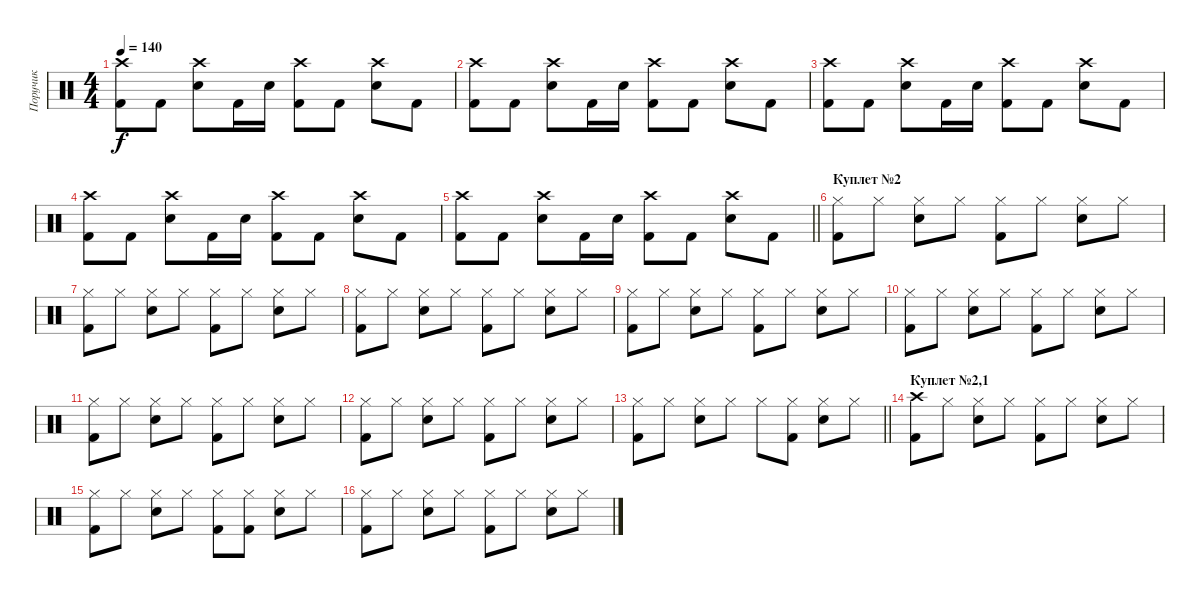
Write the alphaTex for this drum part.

\track ("Поручик" "Поручик") {instrument percussion}
\staff {score}
\articulation defaults
\ts (4 4)
\tempo 140
\clef neutral
\ks c
("Crash high (hit)" "Kick (hit) 2").8{dy f} "Kick (hit) 2".8 ("Crash high (hit)" "Electric Snare (hit)").8 "Kick (hit) 2".16 "Electric Snare (hit)".16 ("Crash high (hit)" "Kick (hit) 2").8 "Kick (hit) 2".8 ("Crash high (hit)" "Electric Snare (hit)").8 "Kick (hit) 2".8 |
("Crash high (hit)" "Kick (hit) 2").8 "Kick (hit) 2".8 ("Crash high (hit)" "Electric Snare (hit)").8 "Kick (hit) 2".16 "Electric Snare (hit)".16 ("Crash high (hit)" "Kick (hit) 2").8 "Kick (hit) 2".8 ("Crash high (hit)" "Electric Snare (hit)").8 "Kick (hit) 2".8 |
("Crash high (hit)" "Kick (hit) 2").8 "Kick (hit) 2".8 ("Crash high (hit)" "Electric Snare (hit)").8 "Kick (hit) 2".16 "Electric Snare (hit)".16 ("Crash high (hit)" "Kick (hit) 2").8 "Kick (hit) 2".8 ("Crash high (hit)" "Electric Snare (hit)").8 "Kick (hit) 2".8 |
("Crash high (hit)" "Kick (hit) 2").8 "Kick (hit) 2".8 ("Crash high (hit)" "Electric Snare (hit)").8 "Kick (hit) 2".16 "Electric Snare (hit)".16 ("Crash high (hit)" "Kick (hit) 2").8 "Kick (hit) 2".8 ("Crash high (hit)" "Electric Snare (hit)").8 "Kick (hit) 2".8 |
\barLineRight lightlight
("Crash high (hit)" "Kick (hit) 2").8 "Kick (hit) 2".8 ("Crash high (hit)" "Electric Snare (hit)").8 "Kick (hit) 2".16 "Electric Snare (hit)".16 ("Crash high (hit)" "Kick (hit) 2").8 "Kick (hit) 2".8 ("Crash high (hit)" "Electric Snare (hit)").8 "Kick (hit) 2".8 |
\section ("" "Куплет №2")
("Hi-Hat (closed)" "Kick (hit) 2").8 "Hi-Hat (closed)".8 ("Hi-Hat (closed)" "Electric Snare (hit)").8 "Hi-Hat (closed)".8 ("Hi-Hat (closed)" "Kick (hit) 2").8 "Hi-Hat (closed)".8 ("Hi-Hat (closed)" "Electric Snare (hit)").8 "Hi-Hat (closed)".8 |
("Hi-Hat (closed)" "Kick (hit) 2").8 "Hi-Hat (closed)".8 ("Hi-Hat (closed)" "Electric Snare (hit)").8 "Hi-Hat (closed)".8 ("Hi-Hat (closed)" "Kick (hit) 2").8 "Hi-Hat (closed)".8 ("Hi-Hat (closed)" "Electric Snare (hit)").8 "Hi-Hat (closed)".8 |
("Hi-Hat (closed)" "Kick (hit) 2").8 "Hi-Hat (closed)".8 ("Hi-Hat (closed)" "Electric Snare (hit)").8 "Hi-Hat (closed)".8 ("Hi-Hat (closed)" "Kick (hit) 2").8 "Hi-Hat (closed)".8 ("Hi-Hat (closed)" "Electric Snare (hit)").8 "Hi-Hat (closed)".8 |
("Hi-Hat (closed)" "Kick (hit) 2").8 "Hi-Hat (closed)".8 ("Hi-Hat (closed)" "Electric Snare (hit)").8 "Hi-Hat (closed)".8 ("Hi-Hat (closed)" "Kick (hit) 2").8 "Hi-Hat (closed)".8 ("Hi-Hat (closed)" "Electric Snare (hit)").8 "Hi-Hat (closed)".8 |
("Hi-Hat (closed)" "Kick (hit) 2").8 "Hi-Hat (closed)".8 ("Hi-Hat (closed)" "Electric Snare (hit)").8 "Hi-Hat (closed)".8 ("Hi-Hat (closed)" "Kick (hit) 2").8 "Hi-Hat (closed)".8 ("Hi-Hat (closed)" "Electric Snare (hit)").8 "Hi-Hat (closed)".8 |
("Hi-Hat (closed)" "Kick (hit) 2").8 "Hi-Hat (closed)".8 ("Hi-Hat (closed)" "Electric Snare (hit)").8 "Hi-Hat (closed)".8 ("Hi-Hat (closed)" "Kick (hit) 2").8 "Hi-Hat (closed)".8 ("Hi-Hat (closed)" "Electric Snare (hit)").8 "Hi-Hat (closed)".8 |
("Hi-Hat (closed)" "Kick (hit) 2").8 "Hi-Hat (closed)".8 ("Hi-Hat (closed)" "Electric Snare (hit)").8 "Hi-Hat (closed)".8 ("Hi-Hat (closed)" "Kick (hit) 2").8 "Hi-Hat (closed)".8 ("Hi-Hat (closed)" "Electric Snare (hit)").8 "Hi-Hat (closed)".8 |
\barLineRight lightlight
("Hi-Hat (closed)" "Kick (hit) 2").8 "Hi-Hat (closed)".8 ("Hi-Hat (closed)" "Electric Snare (hit)").8 "Hi-Hat (closed)".8 "Hi-Hat (closed)".8 ("Hi-Hat (closed)" "Kick (hit) 2").8 ("Hi-Hat (closed)" "Electric Snare (hit)").8 "Hi-Hat (closed)".8 |
\section ("" "Куплет №2,1")
("Crash high (hit)" "Kick (hit) 2").8 "Hi-Hat (closed)".8 ("Hi-Hat (closed)" "Electric Snare (hit)").8 "Hi-Hat (closed)".8 ("Hi-Hat (closed)" "Kick (hit) 2").8 "Hi-Hat (closed)".8 ("Hi-Hat (closed)" "Electric Snare (hit)").8 "Hi-Hat (closed)".8 |
("Hi-Hat (closed)" "Kick (hit) 2").8 "Hi-Hat (closed)".8 ("Hi-Hat (closed)" "Electric Snare (hit)").8 "Hi-Hat (closed)".8 ("Hi-Hat (closed)" "Kick (hit) 2").8 ("Hi-Hat (closed)" "Kick (hit) 2").8 ("Hi-Hat (closed)" "Electric Snare (hit)").8 "Hi-Hat (closed)".8 |
("Hi-Hat (closed)" "Kick (hit) 2").8 "Hi-Hat (closed)".8 ("Hi-Hat (closed)" "Electric Snare (hit)").8 "Hi-Hat (closed)".8 ("Hi-Hat (closed)" "Kick (hit) 2").8 "Hi-Hat (closed)".8 ("Hi-Hat (closed)" "Electric Snare (hit)").8 "Hi-Hat (closed)".8
